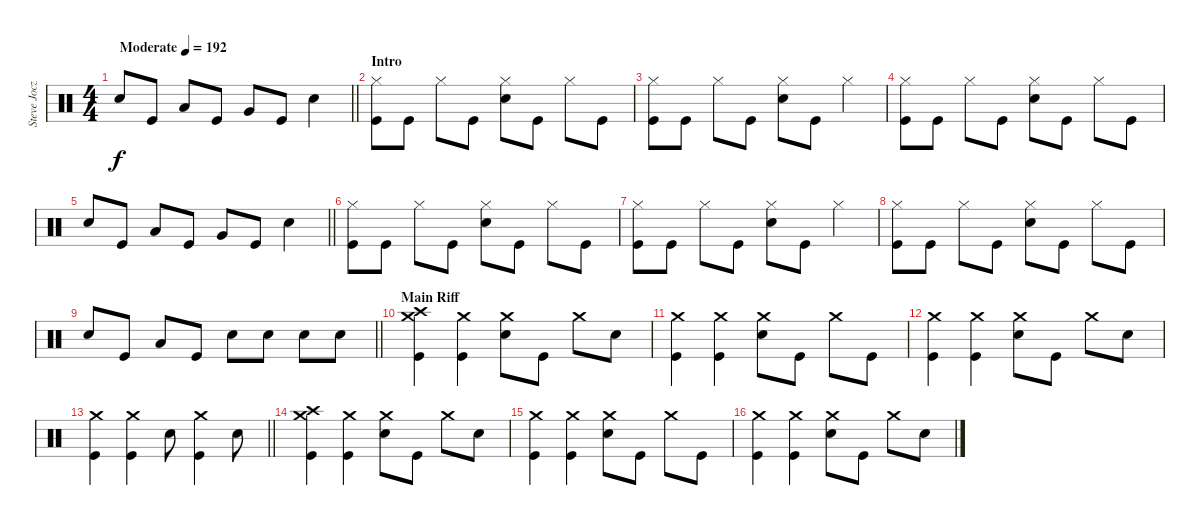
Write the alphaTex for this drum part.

\track ("Steve Jocz" "Steve Jocz") {instrument percussion}
\staff {score}
\articulation defaults
\ts (4 4)
\tempo (192 "Moderate")
\clef neutral
\barLineRight lightlight
\ks c "Electric Snare (hit)".8{dy f} "Kick (hit)".8 "Low Tom (hit)".8 "Kick (hit)".8 "Very Low Tom (hit)".8 "Kick (hit)".8 "Electric Snare (hit)".4
|
\section ("" "Intro")
("Hi-Hat (closed)" "Kick (hit)").8 "Kick (hit)".8 "Hi-Hat (closed)".8 "Kick (hit)".8 ("Hi-Hat (closed)" "Electric Snare (hit)").8 "Kick (hit)".8 "Hi-Hat (closed)".8 "Kick (hit)".8 |
("Hi-Hat (closed)" "Kick (hit)").8 "Kick (hit)".8 "Hi-Hat (closed)".8 "Kick (hit)".8 ("Hi-Hat (closed)" "Electric Snare (hit)").8 "Kick (hit)".8 "Hi-Hat (closed)".4 |
("Hi-Hat (closed)" "Kick (hit)").8 "Kick (hit)".8 "Hi-Hat (closed)".8 "Kick (hit)".8 ("Hi-Hat (closed)" "Electric Snare (hit)").8 "Kick (hit)".8 "Hi-Hat (closed)".8 "Kick (hit)".8 |
\barLineRight lightlight "Electric Snare (hit)".8 "Kick (hit)".8 "Low Tom (hit)".8 "Kick (hit)".8 "Very Low Tom (hit)".8 "Kick (hit)".8 "Electric Snare (hit)".4
|
("Hi-Hat (closed)" "Kick (hit)").8 "Kick (hit)".8 "Hi-Hat (closed)".8 "Kick (hit)".8 ("Hi-Hat (closed)" "Electric Snare (hit)").8 "Kick (hit)".8 "Hi-Hat (closed)".8 "Kick (hit)".8 |
("Hi-Hat (closed)" "Kick (hit)").8 "Kick (hit)".8 "Hi-Hat (closed)".8 "Kick (hit)".8 ("Hi-Hat (closed)" "Electric Snare (hit)").8 "Kick (hit)".8 "Hi-Hat (closed)".4 |
("Hi-Hat (closed)" "Kick (hit)").8 "Kick (hit)".8 "Hi-Hat (closed)".8 "Kick (hit)".8 ("Hi-Hat (closed)" "Electric Snare (hit)").8 "Kick (hit)".8 "Hi-Hat (closed)".8 "Kick (hit)".8 |
\barLineRight lightlight "Electric Snare (hit)".8 "Kick (hit)".8 "Low Tom (hit)".8 "Kick (hit)".8 "Electric Snare (hit)".8 "Electric Snare (hit)".8 "Electric Snare (hit)".8 "Electric Snare (hit)".8
|
\section ("" "Main Riff")
("Crash medium (hit)" "Crash high (hit)" "Kick (hit)").4 ("Crash medium (hit)" "Kick (hit)").4 ("Crash medium (hit)" "Electric Snare (hit)").8 "Kick (hit)".8 "Crash medium (hit)".8 "Electric Snare (hit)".8 |
("Crash medium (hit)" "Kick (hit)").4 ("Crash medium (hit)" "Kick (hit)").4 ("Crash medium (hit)" "Electric Snare (hit)").8 "Kick (hit)".8 "Crash medium (hit)".8 "Kick (hit)".8 |
("Crash medium (hit)" "Kick (hit)").4 ("Crash medium (hit)" "Kick (hit)").4 ("Crash medium (hit)" "Electric Snare (hit)").8 "Kick (hit)".8 "Crash medium (hit)".8 "Electric Snare (hit)".8 |
\barLineRight lightlight
("Crash medium (hit)" "Kick (hit)").4 ("Crash medium (hit)" "Kick (hit)").4 "Electric Snare (hit)".8 ("Crash medium (hit)" "Kick (hit)").4 "Electric Snare (hit)".8 |
("Crash medium (hit)" "Crash high (hit)" "Kick (hit)").4 ("Crash medium (hit)" "Kick (hit)").4 ("Crash medium (hit)" "Electric Snare (hit)").8 "Kick (hit)".8 "Crash medium (hit)".8 "Electric Snare (hit)".8 |
("Crash medium (hit)" "Kick (hit)").4 ("Crash medium (hit)" "Kick (hit)").4 ("Crash medium (hit)" "Electric Snare (hit)").8 "Kick (hit)".8 "Crash medium (hit)".8 "Kick (hit)".8 |
("Crash medium (hit)" "Kick (hit)").4 ("Crash medium (hit)" "Kick (hit)").4 ("Crash medium (hit)" "Electric Snare (hit)").8 "Kick (hit)".8 "Crash medium (hit)".8 "Electric Snare (hit)".8
